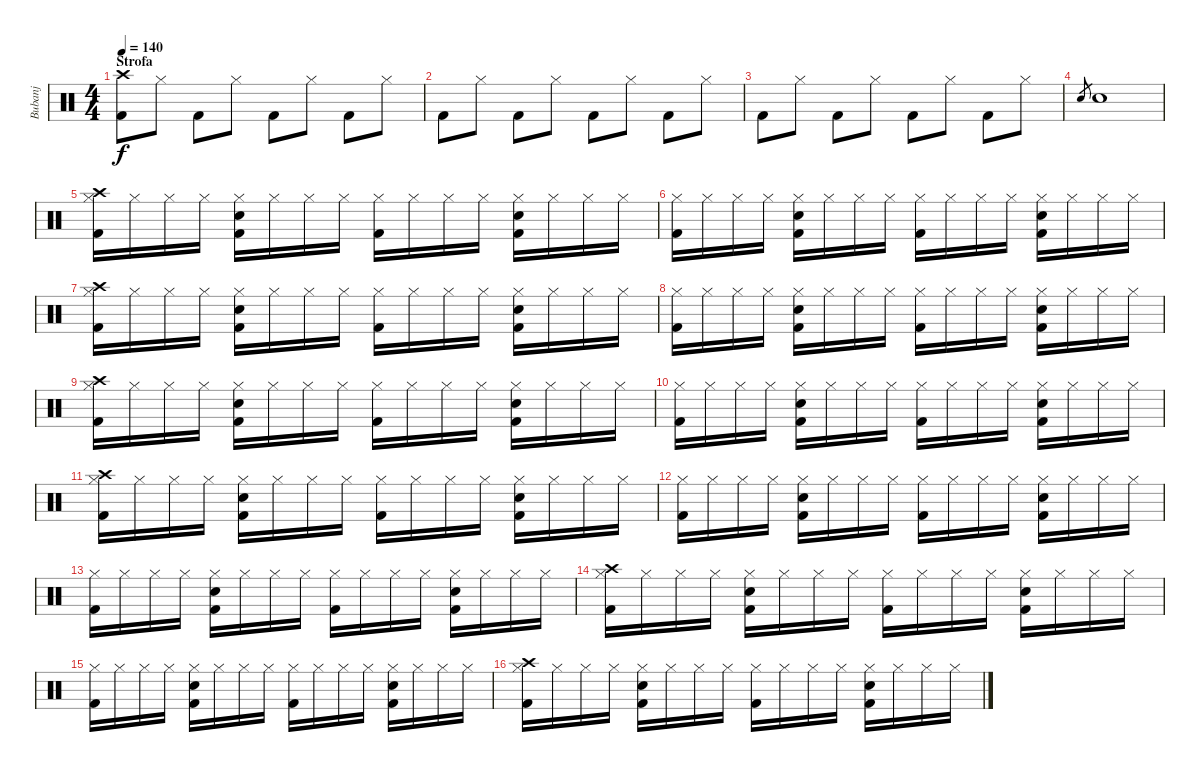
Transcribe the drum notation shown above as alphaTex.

\track ("Bubanj" "Bubanj") {instrument percussion}
\staff {score}
\articulation defaults
\ts (4 4)
\section ("" "Strofa")
\tempo 140
\clef neutral
\ks c
("Kick (hit) 2" "Crash high (hit)").8{dy f} "Hi-Hat (closed)".8 "Kick (hit) 2".8 "Hi-Hat (closed)".8 "Kick (hit) 2".8 "Hi-Hat (closed)".8 "Kick (hit) 2".8 "Hi-Hat (closed)".8 |
"Kick (hit) 2".8 "Hi-Hat (closed)".8 "Kick (hit) 2".8 "Hi-Hat (closed)".8 "Kick (hit) 2".8 "Hi-Hat (closed)".8 "Kick (hit) 2".8 "Hi-Hat (closed)".8 |
"Kick (hit) 2".8 "Hi-Hat (closed)".8 "Kick (hit) 2".8 "Hi-Hat (closed)".8 "Kick (hit) 2".8 "Hi-Hat (closed)".8 "Kick (hit) 2".8 "Hi-Hat (closed)".8 |
"Snare (hit) 2".8{gr} "Snare (hit) 2".1 |
("Kick (hit) 2" "Hi-Hat (closed)" "Crash high (hit)").16 "Hi-Hat (closed)".16 "Hi-Hat (closed)".16 "Hi-Hat (closed)".16 ("Kick (hit) 2" "Snare (hit) 2" "Hi-Hat (closed)").16 "Hi-Hat (closed)".16 "Hi-Hat (closed)".16 "Hi-Hat (closed)".16 ("Kick (hit) 2" "Hi-Hat (closed)").16 "Hi-Hat (closed)".16 "Hi-Hat (closed)".16 "Hi-Hat (closed)".16 ("Kick (hit) 2" "Snare (hit) 2" "Hi-Hat (closed)").16 "Hi-Hat (closed)".16 "Hi-Hat (closed)".16 "Hi-Hat (closed)".16 |
("Kick (hit) 2" "Hi-Hat (closed)").16 "Hi-Hat (closed)".16 "Hi-Hat (closed)".16 "Hi-Hat (closed)".16 ("Kick (hit) 2" "Snare (hit) 2" "Hi-Hat (closed)").16 "Hi-Hat (closed)".16 "Hi-Hat (closed)".16 "Hi-Hat (closed)".16 ("Kick (hit) 2" "Hi-Hat (closed)").16 "Hi-Hat (closed)".16 "Hi-Hat (closed)".16 "Hi-Hat (closed)".16 ("Kick (hit) 2" "Snare (hit) 2" "Hi-Hat (closed)").16 "Hi-Hat (closed)".16 "Hi-Hat (closed)".16 "Hi-Hat (closed)".16 |
("Kick (hit) 2" "Hi-Hat (closed)" "Crash high (hit)").16 "Hi-Hat (closed)".16 "Hi-Hat (closed)".16 "Hi-Hat (closed)".16 ("Kick (hit) 2" "Snare (hit) 2" "Hi-Hat (closed)").16 "Hi-Hat (closed)".16 "Hi-Hat (closed)".16 "Hi-Hat (closed)".16 ("Kick (hit) 2" "Hi-Hat (closed)").16 "Hi-Hat (closed)".16 "Hi-Hat (closed)".16 "Hi-Hat (closed)".16 ("Kick (hit) 2" "Snare (hit) 2" "Hi-Hat (closed)").16 "Hi-Hat (closed)".16 "Hi-Hat (closed)".16 "Hi-Hat (closed)".16 |
("Kick (hit) 2" "Hi-Hat (closed)").16 "Hi-Hat (closed)".16 "Hi-Hat (closed)".16 "Hi-Hat (closed)".16 ("Kick (hit) 2" "Snare (hit) 2" "Hi-Hat (closed)").16 "Hi-Hat (closed)".16 "Hi-Hat (closed)".16 "Hi-Hat (closed)".16 ("Kick (hit) 2" "Hi-Hat (closed)").16 "Hi-Hat (closed)".16 "Hi-Hat (closed)".16 "Hi-Hat (closed)".16 ("Kick (hit) 2" "Snare (hit) 2" "Hi-Hat (closed)").16 "Hi-Hat (closed)".16 "Hi-Hat (closed)".16 "Hi-Hat (closed)".16 |
("Kick (hit) 2" "Hi-Hat (closed)" "Crash high (hit)").16 "Hi-Hat (closed)".16 "Hi-Hat (closed)".16 "Hi-Hat (closed)".16 ("Kick (hit) 2" "Snare (hit) 2" "Hi-Hat (closed)").16 "Hi-Hat (closed)".16 "Hi-Hat (closed)".16 "Hi-Hat (closed)".16 ("Kick (hit) 2" "Hi-Hat (closed)").16 "Hi-Hat (closed)".16 "Hi-Hat (closed)".16 "Hi-Hat (closed)".16 ("Kick (hit) 2" "Snare (hit) 2" "Hi-Hat (closed)").16 "Hi-Hat (closed)".16 "Hi-Hat (closed)".16 "Hi-Hat (closed)".16 |
("Kick (hit) 2" "Hi-Hat (closed)").16 "Hi-Hat (closed)".16 "Hi-Hat (closed)".16 "Hi-Hat (closed)".16 ("Kick (hit) 2" "Snare (hit) 2" "Hi-Hat (closed)").16 "Hi-Hat (closed)".16 "Hi-Hat (closed)".16 "Hi-Hat (closed)".16 ("Kick (hit) 2" "Hi-Hat (closed)").16 "Hi-Hat (closed)".16 "Hi-Hat (closed)".16 "Hi-Hat (closed)".16 ("Kick (hit) 2" "Snare (hit) 2" "Hi-Hat (closed)").16 "Hi-Hat (closed)".16 "Hi-Hat (closed)".16 "Hi-Hat (closed)".16 |
("Kick (hit) 2" "Hi-Hat (closed)" "Crash high (hit)").16 "Hi-Hat (closed)".16 "Hi-Hat (closed)".16 "Hi-Hat (closed)".16 ("Kick (hit) 2" "Snare (hit) 2" "Hi-Hat (closed)").16 "Hi-Hat (closed)".16 "Hi-Hat (closed)".16 "Hi-Hat (closed)".16 ("Kick (hit) 2" "Hi-Hat (closed)").16 "Hi-Hat (closed)".16 "Hi-Hat (closed)".16 "Hi-Hat (closed)".16 ("Kick (hit) 2" "Snare (hit) 2" "Hi-Hat (closed)").16 "Hi-Hat (closed)".16 "Hi-Hat (closed)".16 "Hi-Hat (closed)".16 |
("Kick (hit) 2" "Hi-Hat (closed)").16 "Hi-Hat (closed)".16 "Hi-Hat (closed)".16 "Hi-Hat (closed)".16 ("Kick (hit) 2" "Snare (hit) 2" "Hi-Hat (closed)").16 "Hi-Hat (closed)".16 "Hi-Hat (closed)".16 "Hi-Hat (closed)".16 ("Kick (hit) 2" "Hi-Hat (closed)").16 "Hi-Hat (closed)".16 "Hi-Hat (closed)".16 "Hi-Hat (closed)".16 ("Kick (hit) 2" "Snare (hit) 2" "Hi-Hat (closed)").16 "Hi-Hat (closed)".16 "Hi-Hat (closed)".16 "Hi-Hat (closed)".16 |
("Kick (hit) 2" "Hi-Hat (closed)").16 "Hi-Hat (closed)".16 "Hi-Hat (closed)".16 "Hi-Hat (closed)".16 ("Kick (hit) 2" "Snare (hit) 2" "Hi-Hat (closed)").16 "Hi-Hat (closed)".16 "Hi-Hat (closed)".16 "Hi-Hat (closed)".16 ("Kick (hit) 2" "Hi-Hat (closed)").16 "Hi-Hat (closed)".16 "Hi-Hat (closed)".16 "Hi-Hat (closed)".16 ("Kick (hit) 2" "Snare (hit) 2" "Hi-Hat (closed)").16 "Hi-Hat (closed)".16 "Hi-Hat (closed)".16 "Hi-Hat (closed)".16 |
("Kick (hit) 2" "Hi-Hat (closed)" "Crash high (hit)").16 "Hi-Hat (closed)".16 "Hi-Hat (closed)".16 "Hi-Hat (closed)".16 ("Kick (hit) 2" "Snare (hit) 2" "Hi-Hat (closed)").16 "Hi-Hat (closed)".16 "Hi-Hat (closed)".16 "Hi-Hat (closed)".16 ("Kick (hit) 2" "Hi-Hat (closed)").16 "Hi-Hat (closed)".16 "Hi-Hat (closed)".16 "Hi-Hat (closed)".16 ("Kick (hit) 2" "Snare (hit) 2" "Hi-Hat (closed)").16 "Hi-Hat (closed)".16 "Hi-Hat (closed)".16 "Hi-Hat (closed)".16 |
("Kick (hit) 2" "Hi-Hat (closed)").16 "Hi-Hat (closed)".16 "Hi-Hat (closed)".16 "Hi-Hat (closed)".16 ("Kick (hit) 2" "Snare (hit) 2" "Hi-Hat (closed)").16 "Hi-Hat (closed)".16 "Hi-Hat (closed)".16 "Hi-Hat (closed)".16 ("Kick (hit) 2" "Hi-Hat (closed)").16 "Hi-Hat (closed)".16 "Hi-Hat (closed)".16 "Hi-Hat (closed)".16 ("Kick (hit) 2" "Snare (hit) 2" "Hi-Hat (closed)").16 "Hi-Hat (closed)".16 "Hi-Hat (closed)".16 "Hi-Hat (closed)".16 |
("Kick (hit) 2" "Hi-Hat (closed)" "Crash high (hit)").16 "Hi-Hat (closed)".16 "Hi-Hat (closed)".16 "Hi-Hat (closed)".16 ("Kick (hit) 2" "Snare (hit) 2" "Hi-Hat (closed)").16 "Hi-Hat (closed)".16 "Hi-Hat (closed)".16 "Hi-Hat (closed)".16 ("Kick (hit) 2" "Hi-Hat (closed)").16 "Hi-Hat (closed)".16 "Hi-Hat (closed)".16 "Hi-Hat (closed)".16 ("Kick (hit) 2" "Snare (hit) 2" "Hi-Hat (closed)").16 "Hi-Hat (closed)".16 "Hi-Hat (closed)".16 "Hi-Hat (closed)".16
